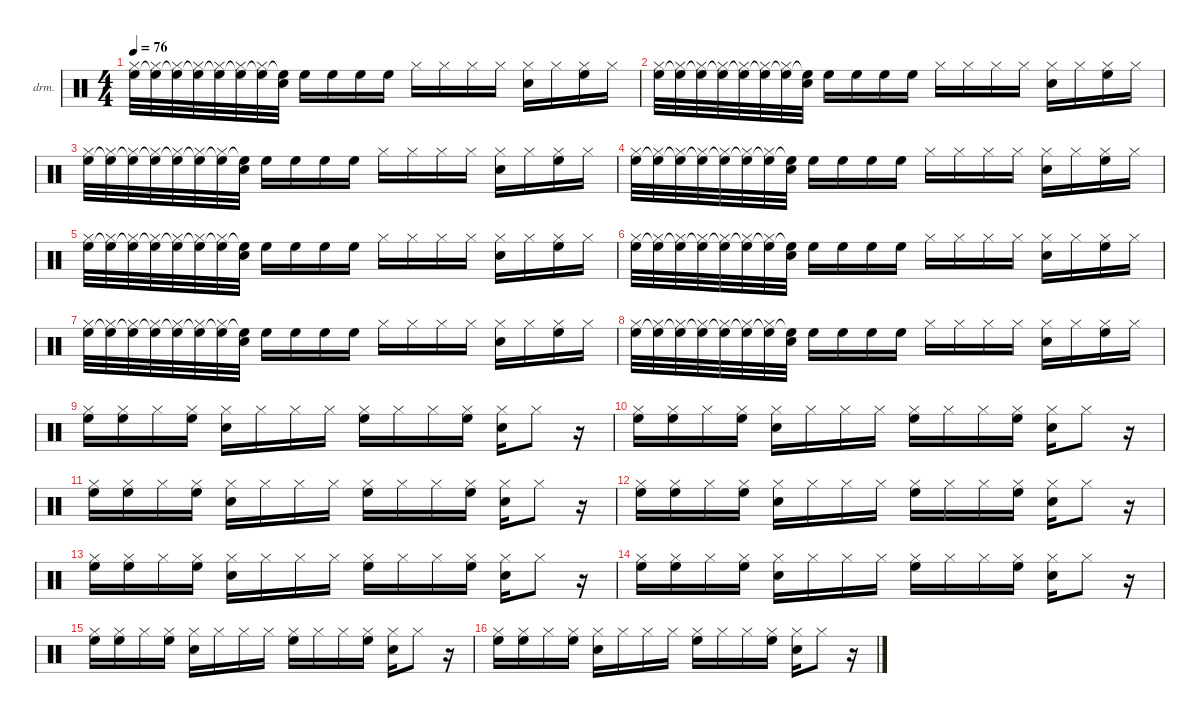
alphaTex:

\defaultSystemsLayout 4
\hideDynamics
\bracketExtendMode nobrackets
\firstSystemTrackNameOrientation horizontal
\otherSystemsTrackNameOrientation horizontal
\track ("¹ÄÉù" "drm.") {instrument percussion}
\staff {score}
\articulation defaults
\ts (4 4)
\tempo 76
\clef neutral
\ks c
("Hi-Hat (closed)" "High Floor Tom (hit)").32{dy f} ("Hi-Hat (closed)" "High Floor Tom (hit)"{t}).32 ("Hi-Hat (closed)" "High Floor Tom (hit)"{t}).32 ("Hi-Hat (closed)" "High Floor Tom (hit)"{t}).32 ("Hi-Hat (closed)" "High Floor Tom (hit)"{t}).32 ("Hi-Hat (closed)" "High Floor Tom (hit)"{t}).32 ("Hi-Hat (closed)" "High Floor Tom (hit)"{t}).32 ("Snare (hit) 2" "High Floor Tom (hit)"{t}).32 "High Floor Tom (hit)".16 "High Floor Tom (hit)".16 "High Floor Tom (hit)".16 "High Floor Tom (hit)".16 "Hi-Hat (closed)".16 "Hi-Hat (closed)".16 "Hi-Hat (closed)".16 "Hi-Hat (closed)".16 ("Hi-Hat (closed)" "Snare (hit) 2").16 "Hi-Hat (closed)".16 ("Hi-Hat (closed)" "High Floor Tom (hit)").16 "Hi-Hat (closed)".16 |
("Hi-Hat (closed)" "High Floor Tom (hit)").32 ("Hi-Hat (closed)" "High Floor Tom (hit)"{t}).32 ("Hi-Hat (closed)" "High Floor Tom (hit)"{t}).32 ("Hi-Hat (closed)" "High Floor Tom (hit)"{t}).32 ("Hi-Hat (closed)" "High Floor Tom (hit)"{t}).32 ("Hi-Hat (closed)" "High Floor Tom (hit)"{t}).32 ("Hi-Hat (closed)" "High Floor Tom (hit)"{t}).32 ("Snare (hit) 2" "High Floor Tom (hit)"{t}).32 "High Floor Tom (hit)".16 "High Floor Tom (hit)".16 "High Floor Tom (hit)".16 "High Floor Tom (hit)".16 "Hi-Hat (closed)".16 "Hi-Hat (closed)".16 "Hi-Hat (closed)".16 "Hi-Hat (closed)".16 ("Hi-Hat (closed)" "Snare (hit) 2").16 "Hi-Hat (closed)".16 ("Hi-Hat (closed)" "High Floor Tom (hit)").16 "Hi-Hat (closed)".16 |
("Hi-Hat (closed)" "High Floor Tom (hit)").32 ("Hi-Hat (closed)" "High Floor Tom (hit)"{t}).32 ("Hi-Hat (closed)" "High Floor Tom (hit)"{t}).32 ("Hi-Hat (closed)" "High Floor Tom (hit)"{t}).32 ("Hi-Hat (closed)" "High Floor Tom (hit)"{t}).32 ("Hi-Hat (closed)" "High Floor Tom (hit)"{t}).32 ("Hi-Hat (closed)" "High Floor Tom (hit)"{t}).32 ("Snare (hit) 2" "High Floor Tom (hit)"{t}).32 "High Floor Tom (hit)".16 "High Floor Tom (hit)".16 "High Floor Tom (hit)".16 "High Floor Tom (hit)".16 "Hi-Hat (closed)".16 "Hi-Hat (closed)".16 "Hi-Hat (closed)".16 "Hi-Hat (closed)".16 ("Hi-Hat (closed)" "Snare (hit) 2").16 "Hi-Hat (closed)".16 ("Hi-Hat (closed)" "High Floor Tom (hit)").16 "Hi-Hat (closed)".16 |
("Hi-Hat (closed)" "High Floor Tom (hit)").32 ("Hi-Hat (closed)" "High Floor Tom (hit)"{t}).32 ("Hi-Hat (closed)" "High Floor Tom (hit)"{t}).32 ("Hi-Hat (closed)" "High Floor Tom (hit)"{t}).32 ("Hi-Hat (closed)" "High Floor Tom (hit)"{t}).32 ("Hi-Hat (closed)" "High Floor Tom (hit)"{t}).32 ("Hi-Hat (closed)" "High Floor Tom (hit)"{t}).32 ("Snare (hit) 2" "High Floor Tom (hit)"{t}).32 "High Floor Tom (hit)".16 "High Floor Tom (hit)".16 "High Floor Tom (hit)".16 "High Floor Tom (hit)".16 "Hi-Hat (closed)".16 "Hi-Hat (closed)".16 "Hi-Hat (closed)".16 "Hi-Hat (closed)".16 ("Hi-Hat (closed)" "Snare (hit) 2").16 "Hi-Hat (closed)".16 ("Hi-Hat (closed)" "High Floor Tom (hit)").16 "Hi-Hat (closed)".16 |
("Hi-Hat (closed)" "High Floor Tom (hit)").32 ("Hi-Hat (closed)" "High Floor Tom (hit)"{t}).32 ("Hi-Hat (closed)" "High Floor Tom (hit)"{t}).32 ("Hi-Hat (closed)" "High Floor Tom (hit)"{t}).32 ("Hi-Hat (closed)" "High Floor Tom (hit)"{t}).32 ("Hi-Hat (closed)" "High Floor Tom (hit)"{t}).32 ("Hi-Hat (closed)" "High Floor Tom (hit)"{t}).32 ("Snare (hit) 2" "High Floor Tom (hit)"{t}).32 "High Floor Tom (hit)".16 "High Floor Tom (hit)".16 "High Floor Tom (hit)".16 "High Floor Tom (hit)".16 "Hi-Hat (closed)".16 "Hi-Hat (closed)".16 "Hi-Hat (closed)".16 "Hi-Hat (closed)".16 ("Hi-Hat (closed)" "Snare (hit) 2").16 "Hi-Hat (closed)".16 ("Hi-Hat (closed)" "High Floor Tom (hit)").16 "Hi-Hat (closed)".16 |
("Hi-Hat (closed)" "High Floor Tom (hit)").32 ("Hi-Hat (closed)" "High Floor Tom (hit)"{t}).32 ("Hi-Hat (closed)" "High Floor Tom (hit)"{t}).32 ("Hi-Hat (closed)" "High Floor Tom (hit)"{t}).32 ("Hi-Hat (closed)" "High Floor Tom (hit)"{t}).32 ("Hi-Hat (closed)" "High Floor Tom (hit)"{t}).32 ("Hi-Hat (closed)" "High Floor Tom (hit)"{t}).32 ("Snare (hit) 2" "High Floor Tom (hit)"{t}).32 "High Floor Tom (hit)".16 "High Floor Tom (hit)".16 "High Floor Tom (hit)".16 "High Floor Tom (hit)".16 "Hi-Hat (closed)".16 "Hi-Hat (closed)".16 "Hi-Hat (closed)".16 "Hi-Hat (closed)".16 ("Hi-Hat (closed)" "Snare (hit) 2").16 "Hi-Hat (closed)".16 ("Hi-Hat (closed)" "High Floor Tom (hit)").16 "Hi-Hat (closed)".16 |
("Hi-Hat (closed)" "High Floor Tom (hit)").32 ("Hi-Hat (closed)" "High Floor Tom (hit)"{t}).32 ("Hi-Hat (closed)" "High Floor Tom (hit)"{t}).32 ("Hi-Hat (closed)" "High Floor Tom (hit)"{t}).32 ("Hi-Hat (closed)" "High Floor Tom (hit)"{t}).32 ("Hi-Hat (closed)" "High Floor Tom (hit)"{t}).32 ("Hi-Hat (closed)" "High Floor Tom (hit)"{t}).32 ("Snare (hit) 2" "High Floor Tom (hit)"{t}).32 "High Floor Tom (hit)".16 "High Floor Tom (hit)".16 "High Floor Tom (hit)".16 "High Floor Tom (hit)".16 "Hi-Hat (closed)".16 "Hi-Hat (closed)".16 "Hi-Hat (closed)".16 "Hi-Hat (closed)".16 ("Hi-Hat (closed)" "Snare (hit) 2").16 "Hi-Hat (closed)".16 ("Hi-Hat (closed)" "High Floor Tom (hit)").16 "Hi-Hat (closed)".16 |
("Hi-Hat (closed)" "High Floor Tom (hit)").32 ("Hi-Hat (closed)" "High Floor Tom (hit)"{t}).32 ("Hi-Hat (closed)" "High Floor Tom (hit)"{t}).32 ("Hi-Hat (closed)" "High Floor Tom (hit)"{t}).32 ("Hi-Hat (closed)" "High Floor Tom (hit)"{t}).32 ("Hi-Hat (closed)" "High Floor Tom (hit)"{t}).32 ("Hi-Hat (closed)" "High Floor Tom (hit)"{t}).32 ("Snare (hit) 2" "High Floor Tom (hit)"{t}).32 "High Floor Tom (hit)".16 "High Floor Tom (hit)".16 "High Floor Tom (hit)".16 "High Floor Tom (hit)".16 "Hi-Hat (closed)".16 "Hi-Hat (closed)".16 "Hi-Hat (closed)".16 "Hi-Hat (closed)".16 ("Hi-Hat (closed)" "Snare (hit) 2").16 "Hi-Hat (closed)".16 ("Hi-Hat (closed)" "High Floor Tom (hit)").16 "Hi-Hat (closed)".16 |
("Hi-Hat (closed)" "High Floor Tom (hit)").16 ("Hi-Hat (closed)" "High Floor Tom (hit)").16 "Hi-Hat (closed)".16 ("Hi-Hat (closed)" "High Floor Tom (hit)").16 ("Hi-Hat (closed)" "Snare (hit) 2").16 "Hi-Hat (closed)".16 "Hi-Hat (closed)".16 "Hi-Hat (closed)".16 ("Hi-Hat (closed)" "High Floor Tom (hit)").16 "Hi-Hat (closed)".16 "Hi-Hat (closed)".16 ("Hi-Hat (closed)" "High Floor Tom (hit)").16 ("Hi-Hat (closed)" "Snare (hit) 2").16 "Hi-Hat (closed)".8 r.16 |
("Hi-Hat (closed)" "High Floor Tom (hit)").16 ("Hi-Hat (closed)" "High Floor Tom (hit)").16 "Hi-Hat (closed)".16 ("Hi-Hat (closed)" "High Floor Tom (hit)").16 ("Hi-Hat (closed)" "Snare (hit) 2").16 "Hi-Hat (closed)".16 "Hi-Hat (closed)".16 "Hi-Hat (closed)".16 ("Hi-Hat (closed)" "High Floor Tom (hit)").16 "Hi-Hat (closed)".16 "Hi-Hat (closed)".16 ("Hi-Hat (closed)" "High Floor Tom (hit)").16 ("Hi-Hat (closed)" "Snare (hit) 2").16 "Hi-Hat (closed)".8 r.16 |
("Hi-Hat (closed)" "High Floor Tom (hit)").16 ("Hi-Hat (closed)" "High Floor Tom (hit)").16 "Hi-Hat (closed)".16 ("Hi-Hat (closed)" "High Floor Tom (hit)").16 ("Hi-Hat (closed)" "Snare (hit) 2").16 "Hi-Hat (closed)".16 "Hi-Hat (closed)".16 "Hi-Hat (closed)".16 ("Hi-Hat (closed)" "High Floor Tom (hit)").16 "Hi-Hat (closed)".16 "Hi-Hat (closed)".16 ("Hi-Hat (closed)" "High Floor Tom (hit)").16 ("Hi-Hat (closed)" "Snare (hit) 2").16 "Hi-Hat (closed)".8 r.16 |
("Hi-Hat (closed)" "High Floor Tom (hit)").16 ("Hi-Hat (closed)" "High Floor Tom (hit)").16 "Hi-Hat (closed)".16 ("Hi-Hat (closed)" "High Floor Tom (hit)").16 ("Hi-Hat (closed)" "Snare (hit) 2").16 "Hi-Hat (closed)".16 "Hi-Hat (closed)".16 "Hi-Hat (closed)".16 ("Hi-Hat (closed)" "High Floor Tom (hit)").16 "Hi-Hat (closed)".16 "Hi-Hat (closed)".16 ("Hi-Hat (closed)" "High Floor Tom (hit)").16 ("Hi-Hat (closed)" "Snare (hit) 2").16 "Hi-Hat (closed)".8 r.16 |
("Hi-Hat (closed)" "High Floor Tom (hit)").16 ("Hi-Hat (closed)" "High Floor Tom (hit)").16 "Hi-Hat (closed)".16 ("Hi-Hat (closed)" "High Floor Tom (hit)").16 ("Hi-Hat (closed)" "Snare (hit) 2").16 "Hi-Hat (closed)".16 "Hi-Hat (closed)".16 "Hi-Hat (closed)".16 ("Hi-Hat (closed)" "High Floor Tom (hit)").16 "Hi-Hat (closed)".16 "Hi-Hat (closed)".16 ("Hi-Hat (closed)" "High Floor Tom (hit)").16 ("Hi-Hat (closed)" "Snare (hit) 2").16 "Hi-Hat (closed)".8 r.16 |
("Hi-Hat (closed)" "High Floor Tom (hit)").16 ("Hi-Hat (closed)" "High Floor Tom (hit)").16 "Hi-Hat (closed)".16 ("Hi-Hat (closed)" "High Floor Tom (hit)").16 ("Hi-Hat (closed)" "Snare (hit) 2").16 "Hi-Hat (closed)".16 "Hi-Hat (closed)".16 "Hi-Hat (closed)".16 ("Hi-Hat (closed)" "High Floor Tom (hit)").16 "Hi-Hat (closed)".16 "Hi-Hat (closed)".16 ("Hi-Hat (closed)" "High Floor Tom (hit)").16 ("Hi-Hat (closed)" "Snare (hit) 2").16 "Hi-Hat (closed)".8 r.16 |
("Hi-Hat (closed)" "High Floor Tom (hit)").16 ("Hi-Hat (closed)" "High Floor Tom (hit)").16 "Hi-Hat (closed)".16 ("Hi-Hat (closed)" "High Floor Tom (hit)").16 ("Hi-Hat (closed)" "Snare (hit) 2").16 "Hi-Hat (closed)".16 "Hi-Hat (closed)".16 "Hi-Hat (closed)".16 ("Hi-Hat (closed)" "High Floor Tom (hit)").16 "Hi-Hat (closed)".16 "Hi-Hat (closed)".16 ("Hi-Hat (closed)" "High Floor Tom (hit)").16 ("Hi-Hat (closed)" "Snare (hit) 2").16 "Hi-Hat (closed)".8 r.16 |
("Hi-Hat (closed)" "High Floor Tom (hit)").16 ("Hi-Hat (closed)" "High Floor Tom (hit)").16 "Hi-Hat (closed)".16 ("Hi-Hat (closed)" "High Floor Tom (hit)").16 ("Hi-Hat (closed)" "Snare (hit) 2").16 "Hi-Hat (closed)".16 "Hi-Hat (closed)".16 "Hi-Hat (closed)".16 ("Hi-Hat (closed)" "High Floor Tom (hit)").16 "Hi-Hat (closed)".16 "Hi-Hat (closed)".16 ("Hi-Hat (closed)" "High Floor Tom (hit)").16 ("Hi-Hat (closed)" "Snare (hit) 2").16 "Hi-Hat (closed)".8 r.16
